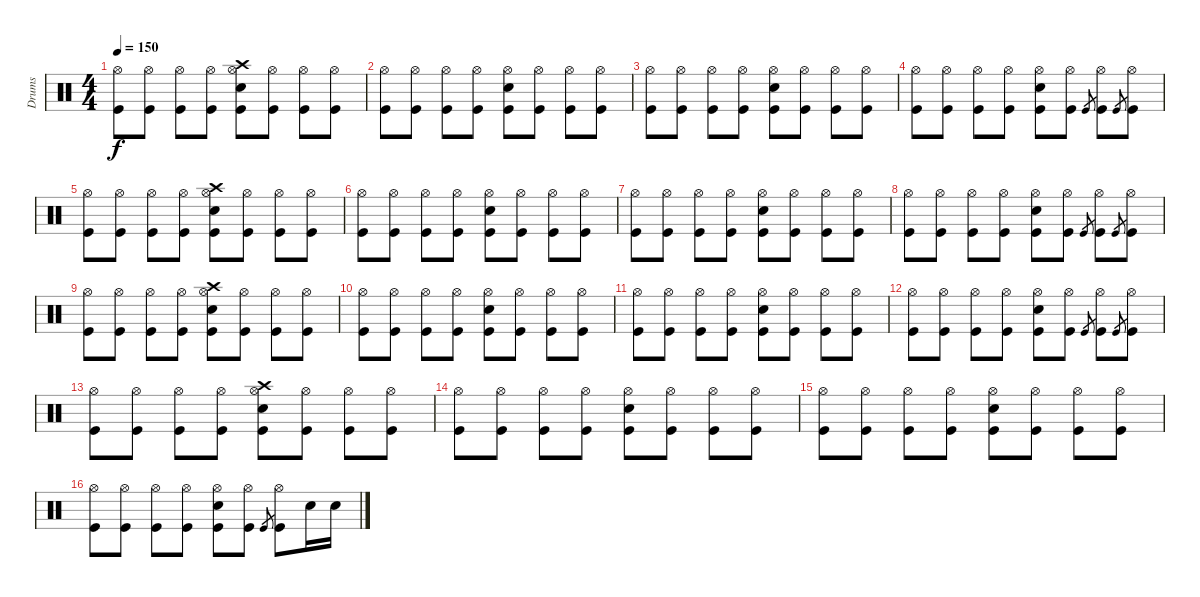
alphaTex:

\track ("Drums" "Drums") {instrument percussion}
\staff {score}
\articulation defaults
\ts (4 4)
\section ("" "")
\tempo 150
\clef neutral
\ks c
("Hi-Hat (open)" "Kick (hit)").8{dy f} ("Hi-Hat (open)" "Kick (hit)").8 ("Hi-Hat (open)" "Kick (hit)").8 ("Hi-Hat (open)" "Kick (hit)").8 ("Crash high (hit)" "Hi-Hat (open)" "Snare (hit) 2" "Kick (hit)").8 ("Hi-Hat (open)" "Kick (hit)").8 ("Hi-Hat (open)" "Kick (hit)").8 ("Hi-Hat (open)" "Kick (hit)").8 |
("Hi-Hat (open)" "Kick (hit)").8 ("Hi-Hat (open)" "Kick (hit)").8 ("Hi-Hat (open)" "Kick (hit)").8 ("Hi-Hat (open)" "Kick (hit)").8 ("Hi-Hat (open)" "Snare (hit) 2" "Kick (hit)").8 ("Hi-Hat (open)" "Kick (hit)").8 ("Hi-Hat (open)" "Kick (hit)").8 ("Hi-Hat (open)" "Kick (hit)").8 |
("Hi-Hat (open)" "Kick (hit)").8 ("Hi-Hat (open)" "Kick (hit)").8 ("Hi-Hat (open)" "Kick (hit)").8 ("Hi-Hat (open)" "Kick (hit)").8 ("Hi-Hat (open)" "Snare (hit) 2" "Kick (hit)").8 ("Hi-Hat (open)" "Kick (hit)").8 ("Hi-Hat (open)" "Kick (hit)").8 ("Hi-Hat (open)" "Kick (hit)").8 |
("Hi-Hat (open)" "Kick (hit)").8 ("Hi-Hat (open)" "Kick (hit)").8 ("Hi-Hat (open)" "Kick (hit)").8 ("Hi-Hat (open)" "Kick (hit)").8 ("Hi-Hat (open)" "Snare (hit) 2" "Kick (hit)").8 ("Hi-Hat (open)" "Kick (hit)").8 "Kick (hit)".8{gr} ("Hi-Hat (open)" "Kick (hit)").8 "Kick (hit)".8{gr} ("Hi-Hat (open)" "Kick (hit)").8 |
("Hi-Hat (open)" "Kick (hit)").8 ("Hi-Hat (open)" "Kick (hit)").8 ("Hi-Hat (open)" "Kick (hit)").8 ("Hi-Hat (open)" "Kick (hit)").8 ("Crash high (hit)" "Hi-Hat (open)" "Snare (hit) 2" "Kick (hit)").8 ("Hi-Hat (open)" "Kick (hit)").8 ("Hi-Hat (open)" "Kick (hit)").8 ("Hi-Hat (open)" "Kick (hit)").8 |
("Hi-Hat (open)" "Kick (hit)").8 ("Hi-Hat (open)" "Kick (hit)").8 ("Hi-Hat (open)" "Kick (hit)").8 ("Hi-Hat (open)" "Kick (hit)").8 ("Hi-Hat (open)" "Snare (hit) 2" "Kick (hit)").8 ("Hi-Hat (open)" "Kick (hit)").8 ("Hi-Hat (open)" "Kick (hit)").8 ("Hi-Hat (open)" "Kick (hit)").8 |
("Hi-Hat (open)" "Kick (hit)").8 ("Hi-Hat (open)" "Kick (hit)").8 ("Hi-Hat (open)" "Kick (hit)").8 ("Hi-Hat (open)" "Kick (hit)").8 ("Hi-Hat (open)" "Snare (hit) 2" "Kick (hit)").8 ("Hi-Hat (open)" "Kick (hit)").8 ("Hi-Hat (open)" "Kick (hit)").8 ("Hi-Hat (open)" "Kick (hit)").8 |
("Hi-Hat (open)" "Kick (hit)").8 ("Hi-Hat (open)" "Kick (hit)").8 ("Hi-Hat (open)" "Kick (hit)").8 ("Hi-Hat (open)" "Kick (hit)").8 ("Hi-Hat (open)" "Snare (hit) 2" "Kick (hit)").8 ("Hi-Hat (open)" "Kick (hit)").8 "Kick (hit)".8{gr} ("Hi-Hat (open)" "Kick (hit)").8 "Kick (hit)".8{gr} ("Hi-Hat (open)" "Kick (hit)").8 |
("Hi-Hat (open)" "Kick (hit)").8 ("Hi-Hat (open)" "Kick (hit)").8 ("Hi-Hat (open)" "Kick (hit)").8 ("Hi-Hat (open)" "Kick (hit)").8 ("Crash high (hit)" "Hi-Hat (open)" "Snare (hit) 2" "Kick (hit)").8 ("Hi-Hat (open)" "Kick (hit)").8 ("Hi-Hat (open)" "Kick (hit)").8 ("Hi-Hat (open)" "Kick (hit)").8 |
("Hi-Hat (open)" "Kick (hit)").8 ("Hi-Hat (open)" "Kick (hit)").8 ("Hi-Hat (open)" "Kick (hit)").8 ("Hi-Hat (open)" "Kick (hit)").8 ("Hi-Hat (open)" "Snare (hit) 2" "Kick (hit)").8 ("Hi-Hat (open)" "Kick (hit)").8 ("Hi-Hat (open)" "Kick (hit)").8 ("Hi-Hat (open)" "Kick (hit)").8 |
("Hi-Hat (open)" "Kick (hit)").8 ("Hi-Hat (open)" "Kick (hit)").8 ("Hi-Hat (open)" "Kick (hit)").8 ("Hi-Hat (open)" "Kick (hit)").8 ("Hi-Hat (open)" "Snare (hit) 2" "Kick (hit)").8 ("Hi-Hat (open)" "Kick (hit)").8 ("Hi-Hat (open)" "Kick (hit)").8 ("Hi-Hat (open)" "Kick (hit)").8 |
("Hi-Hat (open)" "Kick (hit)").8 ("Hi-Hat (open)" "Kick (hit)").8 ("Hi-Hat (open)" "Kick (hit)").8 ("Hi-Hat (open)" "Kick (hit)").8 ("Hi-Hat (open)" "Snare (hit) 2" "Kick (hit)").8 ("Hi-Hat (open)" "Kick (hit)").8 "Kick (hit)".8{gr} ("Hi-Hat (open)" "Kick (hit)").8 "Kick (hit)".8{gr} ("Hi-Hat (open)" "Kick (hit)").8 |
("Hi-Hat (open)" "Kick (hit)").8 ("Hi-Hat (open)" "Kick (hit)").8 ("Hi-Hat (open)" "Kick (hit)").8 ("Hi-Hat (open)" "Kick (hit)").8 ("Crash high (hit)" "Hi-Hat (open)" "Snare (hit) 2" "Kick (hit)").8 ("Hi-Hat (open)" "Kick (hit)").8 ("Hi-Hat (open)" "Kick (hit)").8 ("Hi-Hat (open)" "Kick (hit)").8 |
("Hi-Hat (open)" "Kick (hit)").8 ("Hi-Hat (open)" "Kick (hit)").8 ("Hi-Hat (open)" "Kick (hit)").8 ("Hi-Hat (open)" "Kick (hit)").8 ("Hi-Hat (open)" "Snare (hit) 2" "Kick (hit)").8 ("Hi-Hat (open)" "Kick (hit)").8 ("Hi-Hat (open)" "Kick (hit)").8 ("Hi-Hat (open)" "Kick (hit)").8 |
("Hi-Hat (open)" "Kick (hit)").8 ("Hi-Hat (open)" "Kick (hit)").8 ("Hi-Hat (open)" "Kick (hit)").8 ("Hi-Hat (open)" "Kick (hit)").8 ("Hi-Hat (open)" "Snare (hit) 2" "Kick (hit)").8 ("Hi-Hat (open)" "Kick (hit)").8 ("Hi-Hat (open)" "Kick (hit)").8 ("Hi-Hat (open)" "Kick (hit)").8 |
("Hi-Hat (open)" "Kick (hit)").8 ("Hi-Hat (open)" "Kick (hit)").8 ("Hi-Hat (open)" "Kick (hit)").8 ("Hi-Hat (open)" "Kick (hit)").8 ("Hi-Hat (open)" "Snare (hit) 2" "Kick (hit)").8 ("Hi-Hat (open)" "Kick (hit)").8 "Kick (hit)".8{gr} ("Hi-Hat (open)" "Kick (hit)").8 "Snare (hit) 2".16 "Snare (hit) 2".16
